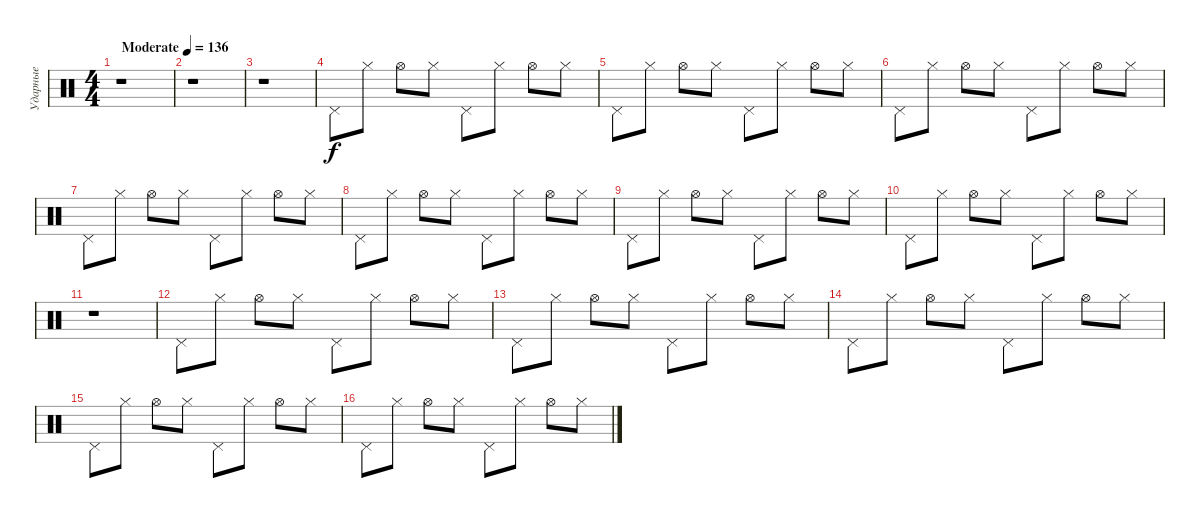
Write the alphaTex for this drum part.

\track ("Ударные" "Ударные") {instrument percussion}
\staff {score}
\articulation defaults
\ts (4 4)
\tempo (136 "Moderate")
\clef neutral
\ks c
r.1{dy f} |
r.1 |
r.1 |
"Pedal Hi-Hat (hit)".8 "Hi-Hat (closed)".8 "Hi-Hat (open)".8 "Hi-Hat (closed)".8 "Pedal Hi-Hat (hit)".8 "Hi-Hat (closed)".8 "Hi-Hat (open)".8 "Hi-Hat (closed)".8 |
"Pedal Hi-Hat (hit)".8 "Hi-Hat (closed)".8 "Hi-Hat (open)".8 "Hi-Hat (closed)".8 "Pedal Hi-Hat (hit)".8 "Hi-Hat (closed)".8 "Hi-Hat (open)".8 "Hi-Hat (closed)".8 |
"Pedal Hi-Hat (hit)".8 "Hi-Hat (closed)".8 "Hi-Hat (open)".8 "Hi-Hat (closed)".8 "Pedal Hi-Hat (hit)".8 "Hi-Hat (closed)".8 "Hi-Hat (open)".8 "Hi-Hat (closed)".8 |
"Pedal Hi-Hat (hit)".8 "Hi-Hat (closed)".8 "Hi-Hat (open)".8 "Hi-Hat (closed)".8 "Pedal Hi-Hat (hit)".8 "Hi-Hat (closed)".8 "Hi-Hat (open)".8 "Hi-Hat (closed)".8 |
"Pedal Hi-Hat (hit)".8 "Hi-Hat (closed)".8 "Hi-Hat (open)".8 "Hi-Hat (closed)".8 "Pedal Hi-Hat (hit)".8 "Hi-Hat (closed)".8 "Hi-Hat (open)".8 "Hi-Hat (closed)".8 |
"Pedal Hi-Hat (hit)".8 "Hi-Hat (closed)".8 "Hi-Hat (open)".8 "Hi-Hat (closed)".8 "Pedal Hi-Hat (hit)".8 "Hi-Hat (closed)".8 "Hi-Hat (open)".8 "Hi-Hat (closed)".8 |
"Pedal Hi-Hat (hit)".8 "Hi-Hat (closed)".8 "Hi-Hat (open)".8 "Hi-Hat (closed)".8 "Pedal Hi-Hat (hit)".8 "Hi-Hat (closed)".8 "Hi-Hat (open)".8 "Hi-Hat (closed)".8 |
r.1 |
"Pedal Hi-Hat (hit)".8 "Hi-Hat (closed)".8 "Hi-Hat (open)".8 "Hi-Hat (closed)".8 "Pedal Hi-Hat (hit)".8 "Hi-Hat (closed)".8 "Hi-Hat (open)".8 "Hi-Hat (closed)".8 |
"Pedal Hi-Hat (hit)".8 "Hi-Hat (closed)".8 "Hi-Hat (open)".8 "Hi-Hat (closed)".8 "Pedal Hi-Hat (hit)".8 "Hi-Hat (closed)".8 "Hi-Hat (open)".8 "Hi-Hat (closed)".8 |
"Pedal Hi-Hat (hit)".8 "Hi-Hat (closed)".8 "Hi-Hat (open)".8 "Hi-Hat (closed)".8 "Pedal Hi-Hat (hit)".8 "Hi-Hat (closed)".8 "Hi-Hat (open)".8 "Hi-Hat (closed)".8 |
"Pedal Hi-Hat (hit)".8 "Hi-Hat (closed)".8 "Hi-Hat (open)".8 "Hi-Hat (closed)".8 "Pedal Hi-Hat (hit)".8 "Hi-Hat (closed)".8 "Hi-Hat (open)".8 "Hi-Hat (closed)".8 |
"Pedal Hi-Hat (hit)".8 "Hi-Hat (closed)".8 "Hi-Hat (open)".8 "Hi-Hat (closed)".8 "Pedal Hi-Hat (hit)".8 "Hi-Hat (closed)".8 "Hi-Hat (open)".8 "Hi-Hat (closed)".8
